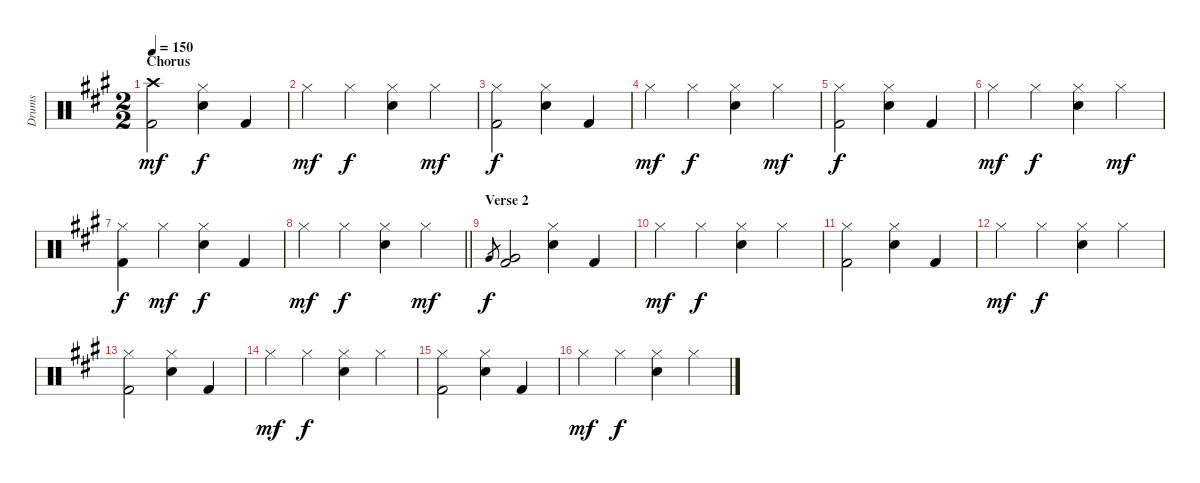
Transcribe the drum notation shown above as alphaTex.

\track ("Drums" "Drums") {instrument percussion}
\staff {score}
\articulation defaults
\ts (2 2)
\section ("" "Chorus")
\tempo 150
\clef neutral
\ks a
("Crash high (hit)" "Kick (hit) 2").2{dy mf} ("Hi-Hat (closed)" "Electric Snare (hit)").4{dy f} "Kick (hit) 2".4 |
"Hi-Hat (closed)".4{dy mf} "Hi-Hat (closed)".4{dy f} ("Hi-Hat (closed)" "Electric Snare (hit)").4 "Hi-Hat (closed)".4{dy mf} |
("Hi-Hat (closed)" "Kick (hit) 2").2{dy f} ("Hi-Hat (closed)" "Electric Snare (hit)").4 "Kick (hit) 2".4 |
"Hi-Hat (closed)".4{dy mf} "Hi-Hat (closed)".4{dy f} ("Hi-Hat (closed)" "Electric Snare (hit)").4 "Hi-Hat (closed)".4{dy mf} |
("Hi-Hat (closed)" "Kick (hit) 2").2{dy f} ("Hi-Hat (closed)" "Electric Snare (hit)").4 "Kick (hit) 2".4 |
"Hi-Hat (closed)".4{dy mf} "Hi-Hat (closed)".4{dy f} ("Hi-Hat (closed)" "Electric Snare (hit)").4 "Hi-Hat (closed)".4{dy mf} |
("Hi-Hat (closed)" "Kick (hit) 2").4{dy f} "Hi-Hat (closed)".4{dy mf} ("Hi-Hat (closed)" "Electric Snare (hit)").4{dy f} "Kick (hit) 2".4 |
\barLineRight lightlight "Hi-Hat (closed)".4{dy mf} "Hi-Hat (closed)".4{dy f}
("Hi-Hat (closed)" "Electric Snare (hit)").4 "Hi-Hat (closed)".4{dy mf} |
\section ("" "Verse 2")
"Very Low Tom (hit)".8{gr dy f} ("Very Low Tom (hit)" "Kick (hit) 2").2 ("Hi-Hat (closed)" "Electric Snare (hit)").4 "Kick (hit) 2".4 |
"Hi-Hat (closed)".4{dy mf} "Hi-Hat (closed)".4{dy f} ("Hi-Hat (closed)" "Electric Snare (hit)").4 "Hi-Hat (closed)".4 |
("Hi-Hat (closed)" "Kick (hit) 2").2 ("Hi-Hat (closed)" "Electric Snare (hit)").4 "Kick (hit) 2".4 |
"Hi-Hat (closed)".4{dy mf} "Hi-Hat (closed)".4{dy f} ("Hi-Hat (closed)" "Electric Snare (hit)").4 "Hi-Hat (closed)".4 |
("Hi-Hat (closed)" "Kick (hit) 2").2 ("Hi-Hat (closed)" "Electric Snare (hit)").4 "Kick (hit) 2".4 |
"Hi-Hat (closed)".4{dy mf} "Hi-Hat (closed)".4{dy f} ("Hi-Hat (closed)" "Electric Snare (hit)").4 "Hi-Hat (closed)".4 |
("Hi-Hat (closed)" "Kick (hit) 2").2 ("Hi-Hat (closed)" "Electric Snare (hit)").4 "Kick (hit) 2".4 |
"Hi-Hat (closed)".4{dy mf} "Hi-Hat (closed)".4{dy f} ("Hi-Hat (closed)" "Electric Snare (hit)").4 "Hi-Hat (closed)".4
